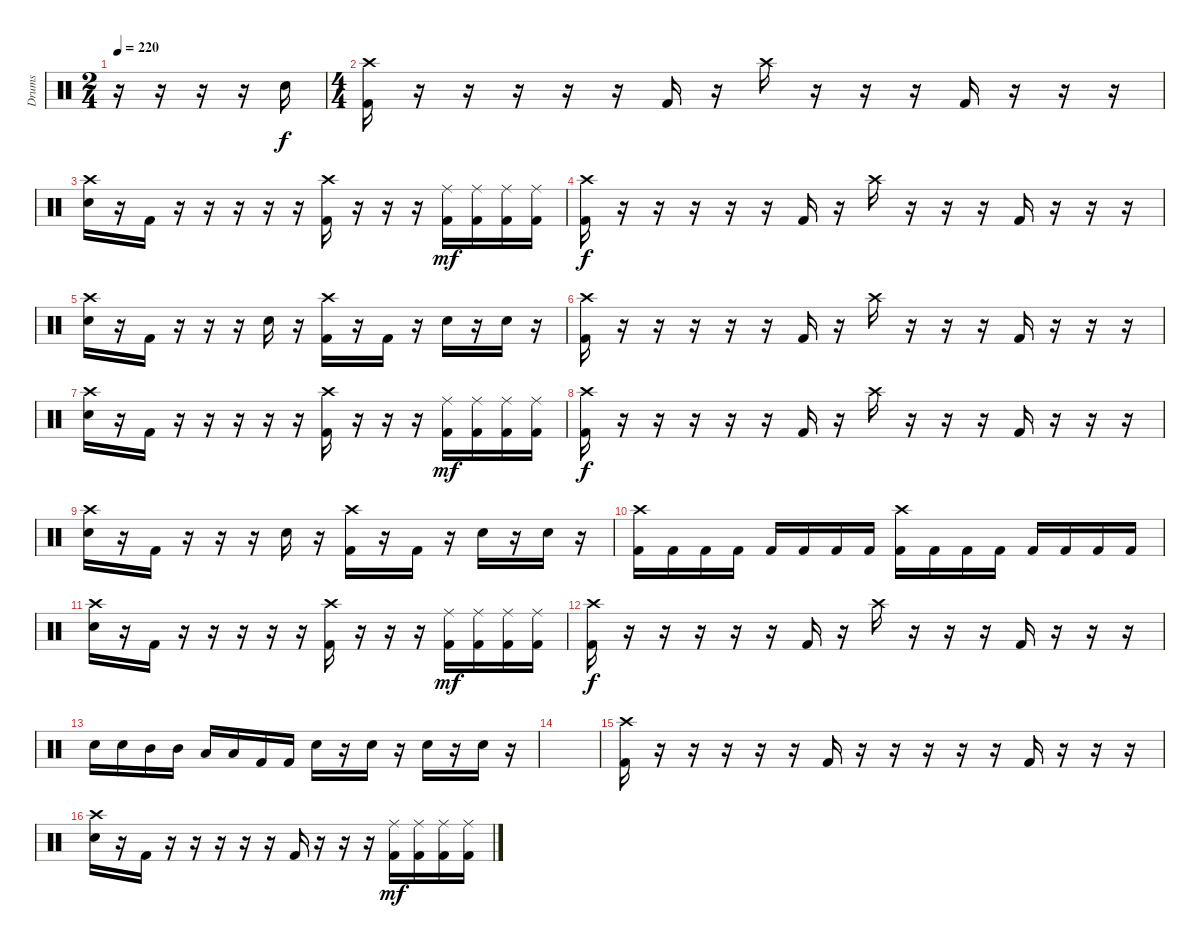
\track ("Drums" "Drums") {instrument percussion}
\staff {score}
\articulation defaults
\ts (2 4)
\tempo 220
\clef neutral
\ks c
r.16{dy f} r.16 r.16 r.16 "Electric Snare (hit)".16 |
\ts (4 4)
("Kick (hit) 2" "Crash high (hit)").16 r.16 r.16 r.16 r.16 r.16 "Kick (hit) 2".16 r.16 "Crash high (hit)".16 r.16 r.16 r.16 "Kick (hit) 2".16 r.16 r.16 r.16 |
("Electric Snare (hit)" "Crash high (hit)").16 r.16 "Kick (hit) 2".16 r.16 r.16 r.16 r.16 r.16 ("Kick (hit) 2" "Crash high (hit)").16 r.16 r.16 r.16 ("Kick (hit) 2" "Ride (middle)").16{dy mf} ("Kick (hit) 2" "Ride (middle)").16 ("Kick (hit) 2" "Ride (middle)").16 ("Kick (hit) 2" "Ride (middle)").16 |
("Kick (hit) 2" "Crash high (hit)").16{dy f} r.16 r.16 r.16 r.16 r.16 "Kick (hit) 2".16 r.16 "Crash high (hit)".16 r.16 r.16 r.16 "Kick (hit) 2".16 r.16 r.16 r.16 |
("Electric Snare (hit)" "Crash high (hit)").16 r.16 "Kick (hit) 2".16 r.16 r.16 r.16 "Electric Snare (hit)".16 r.16 ("Kick (hit) 2" "Crash high (hit)").16 r.16 "Kick (hit) 2".16 r.16 "Electric Snare (hit)".16 r.16 "Electric Snare (hit)".16 r.16 |
("Kick (hit) 2" "Crash high (hit)").16 r.16 r.16 r.16 r.16 r.16 "Kick (hit) 2".16 r.16 "Crash high (hit)".16 r.16 r.16 r.16 "Kick (hit) 2".16 r.16 r.16 r.16 |
("Electric Snare (hit)" "Crash high (hit)").16 r.16 "Kick (hit) 2".16 r.16 r.16 r.16 r.16 r.16 ("Kick (hit) 2" "Crash high (hit)").16 r.16 r.16 r.16 ("Kick (hit) 2" "Ride (middle)").16{dy mf} ("Kick (hit) 2" "Ride (middle)").16 ("Kick (hit) 2" "Ride (middle)").16 ("Kick (hit) 2" "Ride (middle)").16 |
("Kick (hit) 2" "Crash high (hit)").16{dy f} r.16 r.16 r.16 r.16 r.16 "Kick (hit) 2".16 r.16 "Crash high (hit)".16 r.16 r.16 r.16 "Kick (hit) 2".16 r.16 r.16 r.16 |
("Electric Snare (hit)" "Crash high (hit)").16 r.16 "Kick (hit) 2".16 r.16 r.16 r.16 "Electric Snare (hit)".16 r.16 ("Kick (hit) 2" "Crash high (hit)").16 r.16 "Kick (hit) 2".16 r.16 "Electric Snare (hit)".16 r.16 "Electric Snare (hit)".16 r.16 |
("Kick (hit) 2" "Crash high (hit)").16 "Kick (hit) 2".16 "Kick (hit) 2".16 "Kick (hit) 2".16 "Kick (hit) 2".16 "Kick (hit) 2".16 "Kick (hit) 2".16 "Kick (hit) 2".16 ("Kick (hit) 2" "Crash high (hit)").16 "Kick (hit) 2".16 "Kick (hit) 2".16 "Kick (hit) 2".16 "Kick (hit) 2".16 "Kick (hit) 2".16 "Kick (hit) 2".16 "Kick (hit) 2".16 |
("Electric Snare (hit)" "Crash high (hit)").16 r.16 "Kick (hit) 2".16 r.16 r.16 r.16 r.16 r.16 ("Kick (hit) 2" "Crash high (hit)").16 r.16 r.16 r.16 ("Kick (hit) 2" "Ride (middle)").16{dy mf} ("Kick (hit) 2" "Ride (middle)").16 ("Kick (hit) 2" "Ride (middle)").16 ("Kick (hit) 2" "Ride (middle)").16 |
("Kick (hit) 2" "Crash high (hit)").16{dy f} r.16 r.16 r.16 r.16 r.16 "Kick (hit) 2".16 r.16 "Crash high (hit)".16 r.16 r.16 r.16 "Kick (hit) 2".16 r.16 r.16 r.16 |
"Electric Snare (hit)".16 "Electric Snare (hit)".16 "Mid Tom (hit)".16 "Mid Tom (hit)".16 "Low Tom (hit)".16 "Low Tom (hit)".16 "Kick (hit) 2".16 "Kick (hit) 2".16 "Electric Snare (hit)".16 r.16 "Electric Snare (hit)".16 r.16 "Electric Snare (hit)".16 r.16 "Electric Snare (hit)".16 r.16 |
|
("Kick (hit) 2" "Crash high (hit)").16 r.16 r.16 r.16 r.16 r.16 "Kick (hit) 2".16 r.16 r.16 r.16 r.16 r.16 "Kick (hit) 2".16 r.16 r.16 r.16 |
("Electric Snare (hit)" "Crash high (hit)").16 r.16 "Kick (hit) 2".16 r.16 r.16 r.16 r.16 r.16 "Kick (hit) 2".16 r.16 r.16 r.16 ("Kick (hit) 2" "Ride (middle)").16{dy mf} ("Kick (hit) 2" "Ride (middle)").16 ("Kick (hit) 2" "Ride (middle)").16 ("Kick (hit) 2" "Ride (middle)").16
